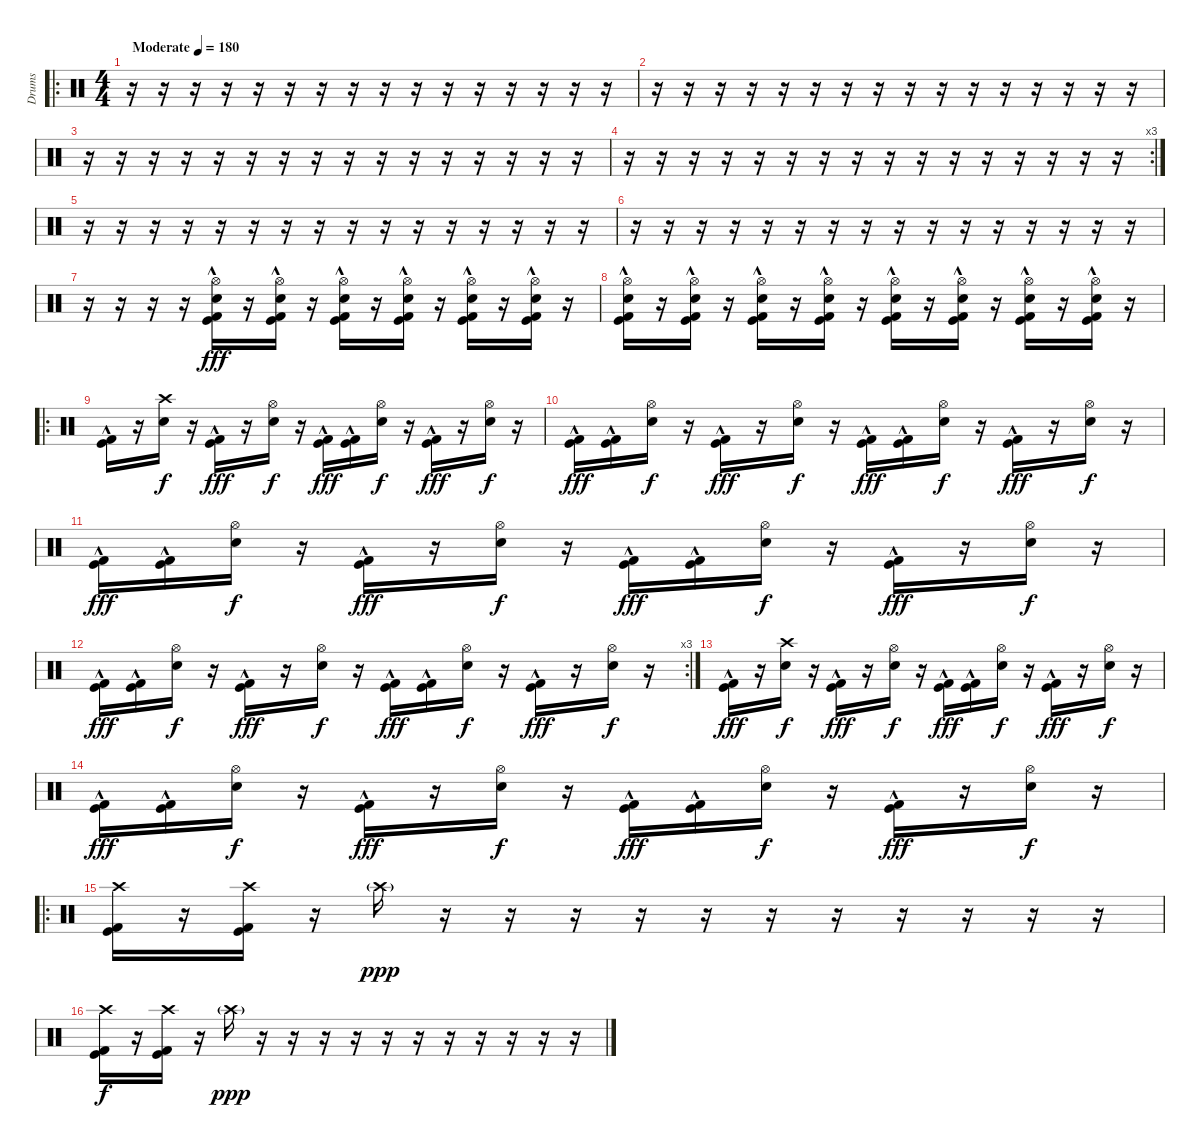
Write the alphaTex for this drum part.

\track ("Drums" "Drums") {instrument percussion}
\staff {score}
\articulation defaults
\ro
\ts (4 4)
\tempo (180 "Moderate")
\clef neutral
\ks c
r.16{dy fff} r.16 r.16 r.16 r.16 r.16 r.16 r.16 r.16 r.16 r.16 r.16 r.16 r.16 r.16 r.16 |
r.16 r.16 r.16 r.16 r.16 r.16 r.16 r.16 r.16 r.16 r.16 r.16 r.16 r.16 r.16 r.16 |
r.16 r.16 r.16 r.16 r.16 r.16 r.16 r.16 r.16 r.16 r.16 r.16 r.16 r.16 r.16 r.16 |
\rc 3
r.16 r.16 r.16 r.16 r.16 r.16 r.16 r.16 r.16 r.16 r.16 r.16 r.16 r.16 r.16 r.16 |
r.16 r.16 r.16 r.16 r.16 r.16 r.16 r.16 r.16 r.16 r.16 r.16 r.16 r.16 r.16 r.16 |
r.16 r.16 r.16 r.16 r.16 r.16 r.16 r.16 r.16 r.16 r.16 r.16 r.16 r.16 r.16 r.16 |
r.16 r.16 r.16 r.16 ("Hi-Hat (open)" "Snare (hit) 2" "Kick (hit)"{hac} "Kick (hit) 2"{hac}).16{volume 16} r.16 ("Hi-Hat (open)" "Snare (hit) 2" "Kick (hit)"{hac} "Kick (hit) 2"{hac}).16 r.16 ("Hi-Hat (open)" "Snare (hit) 2" "Kick (hit)"{hac} "Kick (hit) 2"{hac}).16 r.16 ("Hi-Hat (open)" "Snare (hit) 2" "Kick (hit)"{hac} "Kick (hit) 2"{hac}).16 r.16 ("Hi-Hat (open)" "Snare (hit) 2" "Kick (hit)"{hac} "Kick (hit) 2"{hac}).16 r.16 ("Hi-Hat (open)" "Snare (hit) 2" "Kick (hit)"{hac} "Kick (hit) 2"{hac}).16 r.16 |
("Hi-Hat (open)" "Snare (hit) 2" "Kick (hit)"{hac} "Kick (hit) 2"{hac}).16 r.16 ("Hi-Hat (open)" "Snare (hit) 2" "Kick (hit)"{hac} "Kick (hit) 2"{hac}).16 r.16 ("Hi-Hat (open)" "Snare (hit) 2" "Kick (hit)"{hac} "Kick (hit) 2"{hac}).16 r.16 ("Hi-Hat (open)" "Snare (hit) 2" "Kick (hit)"{hac} "Kick (hit) 2"{hac}).16 r.16 ("Hi-Hat (open)" "Snare (hit) 2" "Kick (hit)"{hac} "Kick (hit) 2"{hac}).16 r.16 ("Hi-Hat (open)" "Snare (hit) 2" "Kick (hit)"{hac} "Kick (hit) 2"{hac}).16 r.16 ("Hi-Hat (open)" "Snare (hit) 2" "Kick (hit)"{hac} "Kick (hit) 2"{hac}).16 r.16 ("Hi-Hat (open)" "Snare (hit) 2" "Kick (hit)"{hac} "Kick (hit) 2"{hac}).16 r.16 |
\ro
("Kick (hit)"{hac} "Kick (hit) 2"{hac}).16 r.16 ("Crash high (hit)" "Snare (hit) 2").16{dy f} r.16 ("Kick (hit)"{hac} "Kick (hit) 2"{hac}).16{dy fff} r.16 ("Hi-Hat (open)" "Snare (hit) 2").16{dy f} r.16 ("Kick (hit)"{hac} "Kick (hit) 2"{hac}).16{dy fff} ("Kick (hit)"{hac} "Kick (hit) 2"{hac}).16 ("Hi-Hat (open)" "Snare (hit) 2").16{dy f} r.16 ("Kick (hit)"{hac} "Kick (hit) 2"{hac}).16{dy fff} r.16 ("Hi-Hat (open)" "Snare (hit) 2").16{dy f} r.16 |
("Kick (hit)"{hac} "Kick (hit) 2"{hac}).16{dy fff} ("Kick (hit)"{hac} "Kick (hit) 2"{hac}).16 ("Hi-Hat (open)" "Snare (hit) 2").16{dy f} r.16 ("Kick (hit)"{hac} "Kick (hit) 2"{hac}).16{dy fff} r.16 ("Hi-Hat (open)" "Snare (hit) 2").16{dy f} r.16 ("Kick (hit)"{hac} "Kick (hit) 2"{hac}).16{dy fff} ("Kick (hit)"{hac} "Kick (hit) 2"{hac}).16 ("Hi-Hat (open)" "Snare (hit) 2").16{dy f} r.16 ("Kick (hit)"{hac} "Kick (hit) 2"{hac}).16{dy fff} r.16 ("Hi-Hat (open)" "Snare (hit) 2").16{dy f} r.16 |
("Kick (hit)"{hac} "Kick (hit) 2"{hac}).16{dy fff} ("Kick (hit)"{hac} "Kick (hit) 2"{hac}).16 ("Hi-Hat (open)" "Snare (hit) 2").16{dy f} r.16 ("Kick (hit)"{hac} "Kick (hit) 2"{hac}).16{dy fff} r.16 ("Hi-Hat (open)" "Snare (hit) 2").16{dy f} r.16 ("Kick (hit)"{hac} "Kick (hit) 2"{hac}).16{dy fff} ("Kick (hit)"{hac} "Kick (hit) 2"{hac}).16 ("Hi-Hat (open)" "Snare (hit) 2").16{dy f} r.16 ("Kick (hit)"{hac} "Kick (hit) 2"{hac}).16{dy fff} r.16 ("Hi-Hat (open)" "Snare (hit) 2").16{dy f} r.16 |
\rc 3
("Kick (hit)"{hac} "Kick (hit) 2"{hac}).16{dy fff} ("Kick (hit)"{hac} "Kick (hit) 2"{hac}).16 ("Hi-Hat (open)" "Snare (hit) 2").16{dy f} r.16 ("Kick (hit)"{hac} "Kick (hit) 2"{hac}).16{dy fff} r.16 ("Hi-Hat (open)" "Snare (hit) 2").16{dy f} r.16 ("Kick (hit)"{hac} "Kick (hit) 2"{hac}).16{dy fff} ("Kick (hit)"{hac} "Kick (hit) 2"{hac}).16 ("Hi-Hat (open)" "Snare (hit) 2").16{dy f} r.16 ("Kick (hit)"{hac} "Kick (hit) 2"{hac}).16{dy fff} r.16 ("Hi-Hat (open)" "Snare (hit) 2").16{dy f} r.16 |
("Kick (hit)"{hac} "Kick (hit) 2"{hac}).16{dy fff} r.16 ("Crash high (hit)" "Snare (hit) 2").16{dy f} r.16 ("Kick (hit)"{hac} "Kick (hit) 2"{hac}).16{dy fff} r.16 ("Hi-Hat (open)" "Snare (hit) 2").16{dy f} r.16 ("Kick (hit)"{hac} "Kick (hit) 2"{hac}).16{dy fff} ("Kick (hit)"{hac} "Kick (hit) 2"{hac}).16 ("Hi-Hat (open)" "Snare (hit) 2").16{dy f} r.16 ("Kick (hit)"{hac} "Kick (hit) 2"{hac}).16{dy fff} r.16 ("Hi-Hat (open)" "Snare (hit) 2").16{dy f} r.16 |
("Kick (hit)"{hac} "Kick (hit) 2"{hac}).16{dy fff} ("Kick (hit)"{hac} "Kick (hit) 2"{hac}).16 ("Hi-Hat (open)" "Snare (hit) 2").16{dy f} r.16 ("Kick (hit)"{hac} "Kick (hit) 2"{hac}).16{dy fff} r.16 ("Hi-Hat (open)" "Snare (hit) 2").16{dy f} r.16 ("Kick (hit)"{hac} "Kick (hit) 2"{hac}).16{dy fff} ("Kick (hit)"{hac} "Kick (hit) 2"{hac}).16 ("Hi-Hat (open)" "Snare (hit) 2").16{dy f} r.16 ("Kick (hit)"{hac} "Kick (hit) 2"{hac}).16{dy fff} r.16 ("Hi-Hat (open)" "Snare (hit) 2").16{dy f} r.16 |
\ro
("Crash high (hit)" "Kick (hit)" "Kick (hit) 2").16 r.16 ("Crash high (hit)" "Kick (hit)" "Kick (hit) 2").16 r.16 "Crash high (hit)"{g}.16{dy ppp} r.16 r.16 r.16 r.16 r.16 r.16 r.16 r.16 r.16 r.16 r.16 |
("Crash high (hit)" "Kick (hit)" "Kick (hit) 2").16{dy f} r.16 ("Crash high (hit)" "Kick (hit)" "Kick (hit) 2").16 r.16 "Crash high (hit)"{g}.16{dy ppp} r.16 r.16 r.16 r.16 r.16 r.16 r.16 r.16 r.16 r.16 r.16
